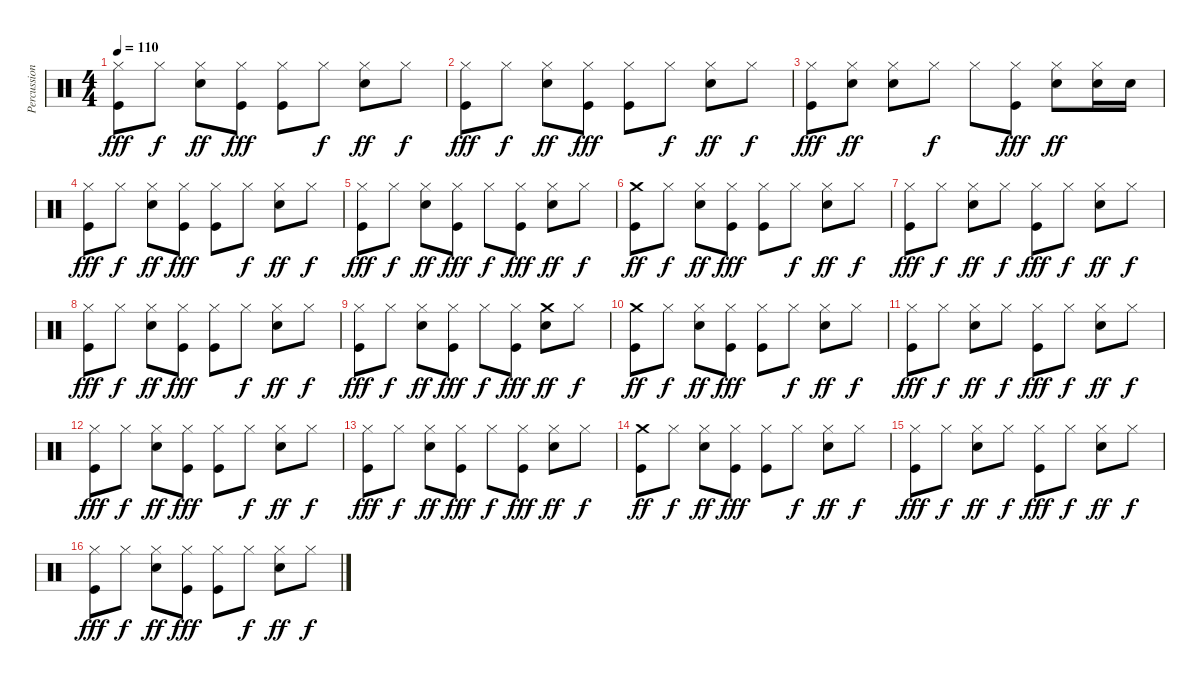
\track ("Percussion" "Percussion") {instrument percussion}
\staff {score}
\articulation defaults
\ts (4 4)
\tempo 110
\clef neutral
\ks c
("Kick (hit)" "Hi-Hat (closed)").8{dy fff} "Hi-Hat (closed)".8{dy f} ("Snare (hit) 2" "Hi-Hat (closed)").8{dy ff} ("Kick (hit)" "Hi-Hat (closed)").8{dy fff} ("Kick (hit)" "Hi-Hat (closed)").8 "Hi-Hat (closed)".8{dy f} ("Snare (hit) 2" "Hi-Hat (closed)").8{dy ff} "Hi-Hat (closed)".8{dy f} |
("Kick (hit)" "Hi-Hat (closed)").8{dy fff} "Hi-Hat (closed)".8{dy f} ("Snare (hit) 2" "Hi-Hat (closed)").8{dy ff} ("Kick (hit)" "Hi-Hat (closed)").8{dy fff} ("Kick (hit)" "Hi-Hat (closed)").8 "Hi-Hat (closed)".8{dy f} ("Snare (hit) 2" "Hi-Hat (closed)").8{dy ff} "Hi-Hat (closed)".8{dy f} |
("Kick (hit)" "Hi-Hat (closed)").8{dy fff} ("Snare (hit) 2" "Hi-Hat (closed)").8{dy ff} ("Snare (hit) 2" "Hi-Hat (closed)").8 "Hi-Hat (closed)".8{dy f} "Hi-Hat (closed)".8 ("Kick (hit)" "Hi-Hat (closed)").8{dy fff} ("Snare (hit) 2" "Hi-Hat (closed)").8{dy ff} ("Snare (hit) 2" "Hi-Hat (closed)").16 "Snare (hit) 2".16 |
("Kick (hit)" "Hi-Hat (closed)").8{dy fff} "Hi-Hat (closed)".8{dy f} ("Snare (hit) 2" "Hi-Hat (closed)").8{dy ff} ("Kick (hit)" "Hi-Hat (closed)").8{dy fff} ("Kick (hit)" "Hi-Hat (closed)").8 "Hi-Hat (closed)".8{dy f} ("Snare (hit) 2" "Hi-Hat (closed)").8{dy ff} "Hi-Hat (closed)".8{dy f} |
("Kick (hit)" "Hi-Hat (closed)").8{dy fff} "Hi-Hat (closed)".8{dy f} ("Snare (hit) 2" "Hi-Hat (closed)").8{dy ff} ("Kick (hit)" "Hi-Hat (closed)").8{dy fff} "Hi-Hat (closed)".8{dy f} ("Kick (hit)" "Hi-Hat (closed)").8{dy fff} ("Snare (hit) 2" "Hi-Hat (closed)").8{dy ff} "Hi-Hat (closed)".8{dy f} |
("Kick (hit)" "Crash medium (hit)").8{dy ff} "Hi-Hat (closed)".8{dy f} ("Snare (hit) 2" "Hi-Hat (closed)").8{dy ff} ("Kick (hit)" "Hi-Hat (closed)").8{dy fff} ("Kick (hit)" "Hi-Hat (closed)").8 "Hi-Hat (closed)".8{dy f} ("Snare (hit) 2" "Hi-Hat (closed)").8{dy ff} "Hi-Hat (closed)".8{dy f} |
("Kick (hit)" "Hi-Hat (closed)").8{dy fff} "Hi-Hat (closed)".8{dy f} ("Snare (hit) 2" "Hi-Hat (closed)").8{dy ff} "Hi-Hat (closed)".8{dy f} ("Kick (hit)" "Hi-Hat (closed)").8{dy fff} "Hi-Hat (closed)".8{dy f} ("Snare (hit) 2" "Hi-Hat (closed)").8{dy ff} "Hi-Hat (closed)".8{dy f} |
("Kick (hit)" "Hi-Hat (closed)").8{dy fff} "Hi-Hat (closed)".8{dy f} ("Snare (hit) 2" "Hi-Hat (closed)").8{dy ff} ("Kick (hit)" "Hi-Hat (closed)").8{dy fff} ("Kick (hit)" "Hi-Hat (closed)").8 "Hi-Hat (closed)".8{dy f} ("Snare (hit) 2" "Hi-Hat (closed)").8{dy ff} "Hi-Hat (closed)".8{dy f} |
("Kick (hit)" "Hi-Hat (closed)").8{dy fff} "Hi-Hat (closed)".8{dy f} ("Snare (hit) 2" "Hi-Hat (closed)").8{dy ff} ("Kick (hit)" "Hi-Hat (closed)").8{dy fff} "Hi-Hat (closed)".8{dy f} ("Kick (hit)" "Hi-Hat (closed)").8{dy fff} ("Snare (hit) 2" "Crash medium (hit)").8{dy ff} "Hi-Hat (closed)".8{dy f} |
("Kick (hit)" "Crash medium (hit)").8{dy ff} "Hi-Hat (closed)".8{dy f} ("Snare (hit) 2" "Hi-Hat (closed)").8{dy ff} ("Kick (hit)" "Hi-Hat (closed)").8{dy fff} ("Kick (hit)" "Hi-Hat (closed)").8 "Hi-Hat (closed)".8{dy f} ("Snare (hit) 2" "Hi-Hat (closed)").8{dy ff} "Hi-Hat (closed)".8{dy f} |
("Kick (hit)" "Hi-Hat (closed)").8{dy fff} "Hi-Hat (closed)".8{dy f} ("Snare (hit) 2" "Hi-Hat (closed)").8{dy ff} "Hi-Hat (closed)".8{dy f} ("Kick (hit)" "Hi-Hat (closed)").8{dy fff} "Hi-Hat (closed)".8{dy f} ("Snare (hit) 2" "Hi-Hat (closed)").8{dy ff} "Hi-Hat (closed)".8{dy f} |
("Kick (hit)" "Hi-Hat (closed)").8{dy fff} "Hi-Hat (closed)".8{dy f} ("Snare (hit) 2" "Hi-Hat (closed)").8{dy ff} ("Kick (hit)" "Hi-Hat (closed)").8{dy fff} ("Kick (hit)" "Hi-Hat (closed)").8 "Hi-Hat (closed)".8{dy f} ("Snare (hit) 2" "Hi-Hat (closed)").8{dy ff} "Hi-Hat (closed)".8{dy f} |
("Kick (hit)" "Hi-Hat (closed)").8{dy fff} "Hi-Hat (closed)".8{dy f} ("Snare (hit) 2" "Hi-Hat (closed)").8{dy ff} ("Kick (hit)" "Hi-Hat (closed)").8{dy fff} "Hi-Hat (closed)".8{dy f} ("Kick (hit)" "Hi-Hat (closed)").8{dy fff} ("Snare (hit) 2" "Hi-Hat (closed)").8{dy ff} "Hi-Hat (closed)".8{dy f} |
("Kick (hit)" "Crash medium (hit)").8{dy ff} "Hi-Hat (closed)".8{dy f} ("Snare (hit) 2" "Hi-Hat (closed)").8{dy ff} ("Kick (hit)" "Hi-Hat (closed)").8{dy fff} ("Kick (hit)" "Hi-Hat (closed)").8 "Hi-Hat (closed)".8{dy f} ("Snare (hit) 2" "Hi-Hat (closed)").8{dy ff} "Hi-Hat (closed)".8{dy f} |
("Kick (hit)" "Hi-Hat (closed)").8{dy fff} "Hi-Hat (closed)".8{dy f} ("Snare (hit) 2" "Hi-Hat (closed)").8{dy ff} "Hi-Hat (closed)".8{dy f} ("Kick (hit)" "Hi-Hat (closed)").8{dy fff} "Hi-Hat (closed)".8{dy f} ("Snare (hit) 2" "Hi-Hat (closed)").8{dy ff} "Hi-Hat (closed)".8{dy f} |
("Kick (hit)" "Hi-Hat (closed)").8{dy fff} "Hi-Hat (closed)".8{dy f} ("Snare (hit) 2" "Hi-Hat (closed)").8{dy ff} ("Kick (hit)" "Hi-Hat (closed)").8{dy fff} ("Kick (hit)" "Hi-Hat (closed)").8 "Hi-Hat (closed)".8{dy f} ("Snare (hit) 2" "Hi-Hat (closed)").8{dy ff} "Hi-Hat (closed)".8{dy f}
